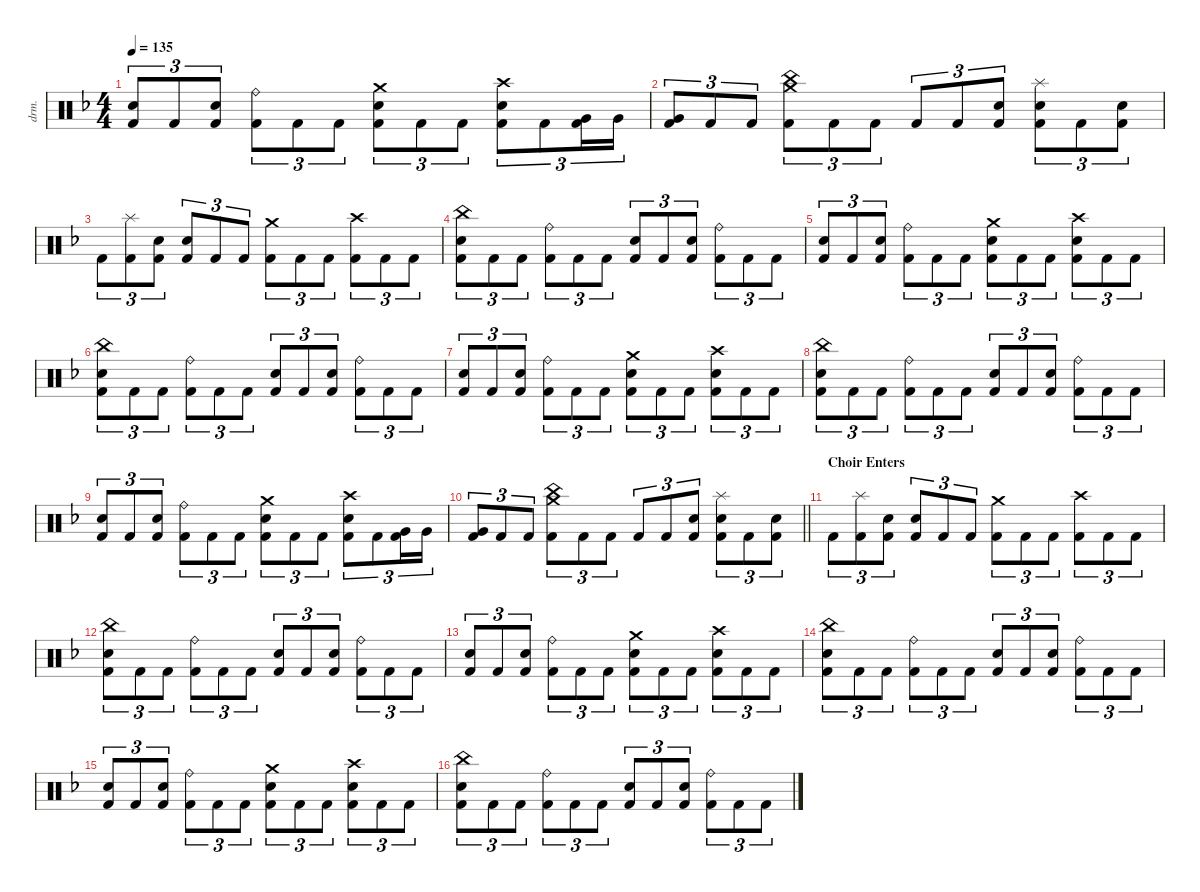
\defaultSystemsLayout 4
\hideDynamics
\bracketExtendMode nobrackets
\otherSystemsTrackNameOrientation horizontal
\track ("Drums" "drm.") {instrument percussion}
\staff {score}
\articulation defaults
\ts (4 4)
\tempo 135
\clef neutral
\ks dminor
("Snare (hit) 2"{acc forcenatural} "Kick (hit) 2"{acc forcenatural}).8{tu (3 2) dy f} "Kick (hit) 2"{acc forcenatural}.8{tu (3 2)} ("Snare (hit) 2"{acc forcenatural} "Kick (hit) 2"{acc forcenatural}).8{tu (3 2)} ("Ride (bell)"{acc forcenatural} "Kick (hit) 2"{acc forcenatural}).8{tu (3 2)} "Kick (hit) 2"{acc forcenatural}.8{tu (3 2)} "Kick (hit) 2"{acc forcenatural}.8{tu (3 2)} ("Crash medium (hit)"{acc forcenatural} "Snare (hit) 2"{acc forcenatural} "Kick (hit) 2"{acc forcenatural}).8{tu (3 2)} "Kick (hit) 2"{acc forcenatural}.8{tu (3 2)} "Kick (hit) 2"{acc forcenatural}.8{tu (3 2)} ("Crash high (hit)"{acc forcenatural} "Snare (hit) 2"{acc forcenatural} "Kick (hit) 2"{acc forcenatural}).8{tu (3 2)} "Kick (hit) 2"{acc forcenatural}.8{tu (3 2)} ("Very Low Tom (hit)"{acc forcenatural} "Kick (hit) 2"{acc forcenatural}).16{tu (3 2)} "Very Low Tom (hit)"{acc forcenatural}.16{tu (3 2)} |
("Very Low Tom (hit)"{acc forcenatural} "Kick (hit) 2"{acc forcenatural}).8{tu (3 2)} "Kick (hit) 2"{acc forcenatural}.8{tu (3 2)} "Kick (hit) 2"{acc forcenatural}.8{tu (3 2)} ("China (hit)"{acc forcenatural} "Crash medium (hit)"{acc forcenatural} "Kick (hit) 2"{acc forcenatural}).8{tu (3 2)} "Kick (hit) 2"{acc forcenatural}.8{tu (3 2)} "Kick (hit) 2"{acc forcenatural}.8{tu (3 2)} "Kick (hit) 2"{acc forcenatural}.8{tu (3 2)} "Kick (hit) 2"{acc forcenatural}.8{tu (3 2)} ("Snare (hit) 2"{acc forcenatural} "Kick (hit) 2"{acc forcenatural}).8{tu (3 2)} ("Splash (hit)"{acc forcenatural} "Snare (hit) 2"{acc forcenatural} "Kick (hit) 2"{acc forcenatural}).8{tu (3 2)} "Kick (hit) 2"{acc forcenatural}.8{tu (3 2)} ("Snare (hit) 2"{acc forcenatural} "Kick (hit) 2"{acc forcenatural}).8{tu (3 2)} |
"Kick (hit) 2"{acc forcenatural}.8{tu (3 2)} ("Splash (hit)"{acc forcenatural} "Kick (hit) 2"{acc forcenatural}).8{tu (3 2)} ("Snare (hit) 2"{acc forcenatural} "Kick (hit) 2"{acc forcenatural}).8{tu (3 2)} ("Snare (hit) 2"{acc forcenatural} "Kick (hit) 2"{acc forcenatural}).8{tu (3 2)} "Kick (hit) 2"{acc forcenatural}.8{tu (3 2)} "Kick (hit) 2"{acc forcenatural}.8{tu (3 2)} ("Crash medium (hit)"{acc forcenatural} "Kick (hit) 2"{acc forcenatural}).8{tu (3 2)} "Kick (hit) 2"{acc forcenatural}.8{tu (3 2)} "Kick (hit) 2"{acc forcenatural}.8{tu (3 2)} ("Crash high (hit)"{acc forcenatural} "Kick (hit) 2"{acc forcenatural}).8{tu (3 2)} "Kick (hit) 2"{acc forcenatural}.8{tu (3 2)} "Kick (hit) 2"{acc forcenatural}.8{tu (3 2)} |
("China (hit)"{acc forcenatural} "Snare (hit) 2"{acc forcenatural} "Kick (hit) 2"{acc forcenatural}).8{tu (3 2)} "Kick (hit) 2"{acc forcenatural}.8{tu (3 2)} "Kick (hit) 2"{acc forcenatural}.8{tu (3 2)} ("Ride (bell)"{acc forcenatural} "Kick (hit) 2"{acc forcenatural}).8{tu (3 2)} "Kick (hit) 2"{acc forcenatural}.8{tu (3 2)} "Kick (hit) 2"{acc forcenatural}.8{tu (3 2)} ("Snare (hit) 2"{acc forcenatural} "Kick (hit) 2"{acc forcenatural}).8{tu (3 2)} "Kick (hit) 2"{acc forcenatural}.8{tu (3 2)} ("Snare (hit) 2"{acc forcenatural} "Kick (hit) 2"{acc forcenatural}).8{tu (3 2)} ("Ride (bell)"{acc forcenatural} "Kick (hit) 2"{acc forcenatural}).8{tu (3 2)} "Kick (hit) 2"{acc forcenatural}.8{tu (3 2)} "Kick (hit) 2"{acc forcenatural}.8{tu (3 2)} |
("Snare (hit) 2"{acc forcenatural} "Kick (hit) 2"{acc forcenatural}).8{tu (3 2)} "Kick (hit) 2"{acc forcenatural}.8{tu (3 2)} ("Snare (hit) 2"{acc forcenatural} "Kick (hit) 2"{acc forcenatural}).8{tu (3 2)} ("Ride (bell)"{acc forcenatural} "Kick (hit) 2"{acc forcenatural}).8{tu (3 2)} "Kick (hit) 2"{acc forcenatural}.8{tu (3 2)} "Kick (hit) 2"{acc forcenatural}.8{tu (3 2)} ("Crash medium (hit)"{acc forcenatural} "Snare (hit) 2"{acc forcenatural} "Kick (hit) 2"{acc forcenatural}).8{tu (3 2)} "Kick (hit) 2"{acc forcenatural}.8{tu (3 2)} "Kick (hit) 2"{acc forcenatural}.8{tu (3 2)} ("Crash high (hit)"{acc forcenatural} "Snare (hit) 2"{acc forcenatural} "Kick (hit) 2"{acc forcenatural}).8{tu (3 2)} "Kick (hit) 2"{acc forcenatural}.8{tu (3 2)} "Kick (hit) 2"{acc forcenatural}.8{tu (3 2)} |
("China (hit)"{acc forcenatural} "Snare (hit) 2"{acc forcenatural} "Kick (hit) 2"{acc forcenatural}).8{tu (3 2)} "Kick (hit) 2"{acc forcenatural}.8{tu (3 2)} "Kick (hit) 2"{acc forcenatural}.8{tu (3 2)} ("Ride (bell)"{acc forcenatural} "Kick (hit) 2"{acc forcenatural}).8{tu (3 2)} "Kick (hit) 2"{acc forcenatural}.8{tu (3 2)} "Kick (hit) 2"{acc forcenatural}.8{tu (3 2)} ("Snare (hit) 2"{acc forcenatural} "Kick (hit) 2"{acc forcenatural}).8{tu (3 2)} "Kick (hit) 2"{acc forcenatural}.8{tu (3 2)} ("Snare (hit) 2"{acc forcenatural} "Kick (hit) 2"{acc forcenatural}).8{tu (3 2)} ("Ride (bell)"{acc forcenatural} "Kick (hit) 2"{acc forcenatural}).8{tu (3 2)} "Kick (hit) 2"{acc forcenatural}.8{tu (3 2)} "Kick (hit) 2"{acc forcenatural}.8{tu (3 2)} |
("Snare (hit) 2"{acc forcenatural} "Kick (hit) 2"{acc forcenatural}).8{tu (3 2)} "Kick (hit) 2"{acc forcenatural}.8{tu (3 2)} ("Snare (hit) 2"{acc forcenatural} "Kick (hit) 2"{acc forcenatural}).8{tu (3 2)} ("Ride (bell)"{acc forcenatural} "Kick (hit) 2"{acc forcenatural}).8{tu (3 2)} "Kick (hit) 2"{acc forcenatural}.8{tu (3 2)} "Kick (hit) 2"{acc forcenatural}.8{tu (3 2)} ("Crash medium (hit)"{acc forcenatural} "Snare (hit) 2"{acc forcenatural} "Kick (hit) 2"{acc forcenatural}).8{tu (3 2)} "Kick (hit) 2"{acc forcenatural}.8{tu (3 2)} "Kick (hit) 2"{acc forcenatural}.8{tu (3 2)} ("Crash high (hit)"{acc forcenatural} "Snare (hit) 2"{acc forcenatural} "Kick (hit) 2"{acc forcenatural}).8{tu (3 2)} "Kick (hit) 2"{acc forcenatural}.8{tu (3 2)} "Kick (hit) 2"{acc forcenatural}.8{tu (3 2)} |
("China (hit)"{acc forcenatural} "Snare (hit) 2"{acc forcenatural} "Kick (hit) 2"{acc forcenatural}).8{tu (3 2)} "Kick (hit) 2"{acc forcenatural}.8{tu (3 2)} "Kick (hit) 2"{acc forcenatural}.8{tu (3 2)} ("Ride (bell)"{acc forcenatural} "Kick (hit) 2"{acc forcenatural}).8{tu (3 2)} "Kick (hit) 2"{acc forcenatural}.8{tu (3 2)} "Kick (hit) 2"{acc forcenatural}.8{tu (3 2)} ("Snare (hit) 2"{acc forcenatural} "Kick (hit) 2"{acc forcenatural}).8{tu (3 2)} "Kick (hit) 2"{acc forcenatural}.8{tu (3 2)} ("Snare (hit) 2"{acc forcenatural} "Kick (hit) 2"{acc forcenatural}).8{tu (3 2)} ("Ride (bell)"{acc forcenatural} "Kick (hit) 2"{acc forcenatural}).8{tu (3 2)} "Kick (hit) 2"{acc forcenatural}.8{tu (3 2)} "Kick (hit) 2"{acc forcenatural}.8{tu (3 2)} |
("Snare (hit) 2"{acc forcenatural} "Kick (hit) 2"{acc forcenatural}).8{tu (3 2)} "Kick (hit) 2"{acc forcenatural}.8{tu (3 2)} ("Snare (hit) 2"{acc forcenatural} "Kick (hit) 2"{acc forcenatural}).8{tu (3 2)} ("Ride (bell)"{acc forcenatural} "Kick (hit) 2"{acc forcenatural}).8{tu (3 2)} "Kick (hit) 2"{acc forcenatural}.8{tu (3 2)} "Kick (hit) 2"{acc forcenatural}.8{tu (3 2)} ("Crash medium (hit)"{acc forcenatural} "Snare (hit) 2"{acc forcenatural} "Kick (hit) 2"{acc forcenatural}).8{tu (3 2)} "Kick (hit) 2"{acc forcenatural}.8{tu (3 2)} "Kick (hit) 2"{acc forcenatural}.8{tu (3 2)} ("Crash high (hit)"{acc forcenatural} "Snare (hit) 2"{acc forcenatural} "Kick (hit) 2"{acc forcenatural}).8{tu (3 2)} "Kick (hit) 2"{acc forcenatural}.8{tu (3 2)} ("Very Low Tom (hit)"{acc forcenatural} "Kick (hit) 2"{acc forcenatural}).16{tu (3 2)} "Very Low Tom (hit)"{acc forcenatural}.16{tu (3 2)} |
\barLineRight lightlight
("Very Low Tom (hit)"{acc forcenatural} "Kick (hit) 2"{acc forcenatural}).8{tu (3 2)} "Kick (hit) 2"{acc forcenatural}.8{tu (3 2)} "Kick (hit) 2"{acc forcenatural}.8{tu (3 2)} ("China (hit)"{acc forcenatural} "Crash medium (hit)"{acc forcenatural} "Kick (hit) 2"{acc forcenatural}).8{tu (3 2)} "Kick (hit) 2"{acc forcenatural}.8{tu (3 2)} "Kick (hit) 2"{acc forcenatural}.8{tu (3 2)} "Kick (hit) 2"{acc forcenatural}.8{tu (3 2)} "Kick (hit) 2"{acc forcenatural}.8{tu (3 2)} ("Snare (hit) 2"{acc forcenatural} "Kick (hit) 2"{acc forcenatural}).8{tu (3 2)} ("Splash (hit)"{acc forcenatural} "Snare (hit) 2"{acc forcenatural} "Kick (hit) 2"{acc forcenatural}).8{tu (3 2)} "Kick (hit) 2"{acc forcenatural}.8{tu (3 2)} ("Snare (hit) 2"{acc forcenatural} "Kick (hit) 2"{acc forcenatural}).8{tu (3 2)} |
\section ("" "Choir Enters")
"Kick (hit) 2"{acc forcenatural}.8{tu (3 2)} ("Splash (hit)"{acc forcenatural} "Kick (hit) 2"{acc forcenatural}).8{tu (3 2)} ("Snare (hit) 2"{acc forcenatural} "Kick (hit) 2"{acc forcenatural}).8{tu (3 2)} ("Snare (hit) 2"{acc forcenatural} "Kick (hit) 2"{acc forcenatural}).8{tu (3 2)} "Kick (hit) 2"{acc forcenatural}.8{tu (3 2)} "Kick (hit) 2"{acc forcenatural}.8{tu (3 2)} ("Crash medium (hit)"{acc forcenatural} "Kick (hit) 2"{acc forcenatural}).8{tu (3 2)} "Kick (hit) 2"{acc forcenatural}.8{tu (3 2)} "Kick (hit) 2"{acc forcenatural}.8{tu (3 2)} ("Crash high (hit)"{acc forcenatural} "Kick (hit) 2"{acc forcenatural}).8{tu (3 2)} "Kick (hit) 2"{acc forcenatural}.8{tu (3 2)} "Kick (hit) 2"{acc forcenatural}.8{tu (3 2)} |
("China (hit)"{acc forcenatural} "Snare (hit) 2"{acc forcenatural} "Kick (hit) 2"{acc forcenatural}).8{tu (3 2)} "Kick (hit) 2"{acc forcenatural}.8{tu (3 2)} "Kick (hit) 2"{acc forcenatural}.8{tu (3 2)} ("Ride (bell)"{acc forcenatural} "Kick (hit) 2"{acc forcenatural}).8{tu (3 2)} "Kick (hit) 2"{acc forcenatural}.8{tu (3 2)} "Kick (hit) 2"{acc forcenatural}.8{tu (3 2)} ("Snare (hit) 2"{acc forcenatural} "Kick (hit) 2"{acc forcenatural}).8{tu (3 2)} "Kick (hit) 2"{acc forcenatural}.8{tu (3 2)} ("Snare (hit) 2"{acc forcenatural} "Kick (hit) 2"{acc forcenatural}).8{tu (3 2)} ("Ride (bell)"{acc forcenatural} "Kick (hit) 2"{acc forcenatural}).8{tu (3 2)} "Kick (hit) 2"{acc forcenatural}.8{tu (3 2)} "Kick (hit) 2"{acc forcenatural}.8{tu (3 2)} |
("Snare (hit) 2"{acc forcenatural} "Kick (hit) 2"{acc forcenatural}).8{tu (3 2)} "Kick (hit) 2"{acc forcenatural}.8{tu (3 2)} ("Snare (hit) 2"{acc forcenatural} "Kick (hit) 2"{acc forcenatural}).8{tu (3 2)} ("Ride (bell)"{acc forcenatural} "Kick (hit) 2"{acc forcenatural}).8{tu (3 2)} "Kick (hit) 2"{acc forcenatural}.8{tu (3 2)} "Kick (hit) 2"{acc forcenatural}.8{tu (3 2)} ("Crash medium (hit)"{acc forcenatural} "Snare (hit) 2"{acc forcenatural} "Kick (hit) 2"{acc forcenatural}).8{tu (3 2)} "Kick (hit) 2"{acc forcenatural}.8{tu (3 2)} "Kick (hit) 2"{acc forcenatural}.8{tu (3 2)} ("Crash high (hit)"{acc forcenatural} "Snare (hit) 2"{acc forcenatural} "Kick (hit) 2"{acc forcenatural}).8{tu (3 2)} "Kick (hit) 2"{acc forcenatural}.8{tu (3 2)} "Kick (hit) 2"{acc forcenatural}.8{tu (3 2)} |
("China (hit)"{acc forcenatural} "Snare (hit) 2"{acc forcenatural} "Kick (hit) 2"{acc forcenatural}).8{tu (3 2)} "Kick (hit) 2"{acc forcenatural}.8{tu (3 2)} "Kick (hit) 2"{acc forcenatural}.8{tu (3 2)} ("Ride (bell)"{acc forcenatural} "Kick (hit) 2"{acc forcenatural}).8{tu (3 2)} "Kick (hit) 2"{acc forcenatural}.8{tu (3 2)} "Kick (hit) 2"{acc forcenatural}.8{tu (3 2)} ("Snare (hit) 2"{acc forcenatural} "Kick (hit) 2"{acc forcenatural}).8{tu (3 2)} "Kick (hit) 2"{acc forcenatural}.8{tu (3 2)} ("Snare (hit) 2"{acc forcenatural} "Kick (hit) 2"{acc forcenatural}).8{tu (3 2)} ("Ride (bell)"{acc forcenatural} "Kick (hit) 2"{acc forcenatural}).8{tu (3 2)} "Kick (hit) 2"{acc forcenatural}.8{tu (3 2)} "Kick (hit) 2"{acc forcenatural}.8{tu (3 2)} |
("Snare (hit) 2"{acc forcenatural} "Kick (hit) 2"{acc forcenatural}).8{tu (3 2)} "Kick (hit) 2"{acc forcenatural}.8{tu (3 2)} ("Snare (hit) 2"{acc forcenatural} "Kick (hit) 2"{acc forcenatural}).8{tu (3 2)} ("Ride (bell)"{acc forcenatural} "Kick (hit) 2"{acc forcenatural}).8{tu (3 2)} "Kick (hit) 2"{acc forcenatural}.8{tu (3 2)} "Kick (hit) 2"{acc forcenatural}.8{tu (3 2)} ("Crash medium (hit)"{acc forcenatural} "Snare (hit) 2"{acc forcenatural} "Kick (hit) 2"{acc forcenatural}).8{tu (3 2)} "Kick (hit) 2"{acc forcenatural}.8{tu (3 2)} "Kick (hit) 2"{acc forcenatural}.8{tu (3 2)} ("Crash high (hit)"{acc forcenatural} "Snare (hit) 2"{acc forcenatural} "Kick (hit) 2"{acc forcenatural}).8{tu (3 2)} "Kick (hit) 2"{acc forcenatural}.8{tu (3 2)} "Kick (hit) 2"{acc forcenatural}.8{tu (3 2)} |
("China (hit)"{acc forcenatural} "Snare (hit) 2"{acc forcenatural} "Kick (hit) 2"{acc forcenatural}).8{tu (3 2)} "Kick (hit) 2"{acc forcenatural}.8{tu (3 2)} "Kick (hit) 2"{acc forcenatural}.8{tu (3 2)} ("Ride (bell)"{acc forcenatural} "Kick (hit) 2"{acc forcenatural}).8{tu (3 2)} "Kick (hit) 2"{acc forcenatural}.8{tu (3 2)} "Kick (hit) 2"{acc forcenatural}.8{tu (3 2)} ("Snare (hit) 2"{acc forcenatural} "Kick (hit) 2"{acc forcenatural}).8{tu (3 2)} "Kick (hit) 2"{acc forcenatural}.8{tu (3 2)} ("Snare (hit) 2"{acc forcenatural} "Kick (hit) 2"{acc forcenatural}).8{tu (3 2)} ("Ride (bell)"{acc forcenatural} "Kick (hit) 2"{acc forcenatural}).8{tu (3 2)} "Kick (hit) 2"{acc forcenatural}.8{tu (3 2)} "Kick (hit) 2"{acc forcenatural}.8{tu (3 2)}
